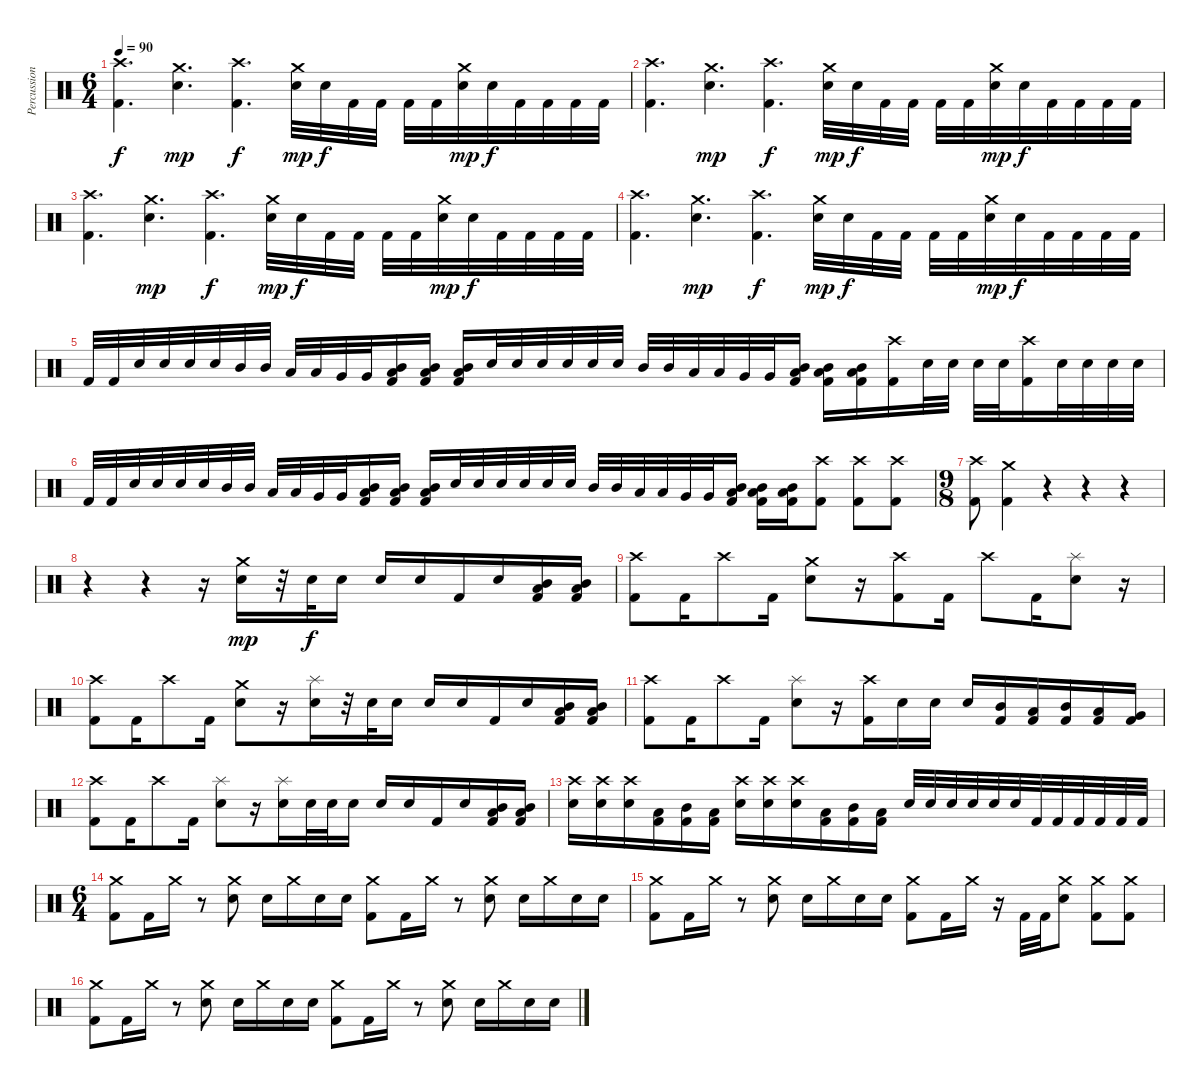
\track ("Percussion" "Percussion") {instrument percussion}
\staff {score}
\articulation defaults
\ts (6 4)
\tempo 90
\clef neutral
\ks c
("Crash high (hit)" "Kick (hit) 2").4{d dy f} ("Crash medium (hit)" "Snare (hit) 2").4{d dy mp} ("Crash high (hit)" "Kick (hit) 2").4{d dy f} ("Crash medium (hit)" "Snare (hit) 2").32{dy mp} "Snare (hit) 2".32{dy f} "Kick (hit) 2".32 "Kick (hit) 2".32 "Kick (hit) 2".32 "Kick (hit) 2".32 ("Crash medium (hit)" "Snare (hit) 2").32{dy mp} "Snare (hit) 2".32{dy f} "Kick (hit) 2".32 "Kick (hit) 2".32 "Kick (hit) 2".32 "Kick (hit) 2".32 |
("Crash high (hit)" "Kick (hit) 2").4{d} ("Crash medium (hit)" "Snare (hit) 2").4{d dy mp} ("Crash high (hit)" "Kick (hit) 2").4{d dy f} ("Crash medium (hit)" "Snare (hit) 2").32{dy mp} "Snare (hit) 2".32{dy f} "Kick (hit) 2".32 "Kick (hit) 2".32 "Kick (hit) 2".32 "Kick (hit) 2".32 ("Crash medium (hit)" "Snare (hit) 2").32{dy mp} "Snare (hit) 2".32{dy f} "Kick (hit) 2".32 "Kick (hit) 2".32 "Kick (hit) 2".32 "Kick (hit) 2".32 |
("Crash high (hit)" "Kick (hit) 2").4{d} ("Crash medium (hit)" "Snare (hit) 2").4{d dy mp} ("Crash high (hit)" "Kick (hit) 2").4{d dy f} ("Crash medium (hit)" "Snare (hit) 2").32{dy mp} "Snare (hit) 2".32{dy f} "Kick (hit) 2".32 "Kick (hit) 2".32 "Kick (hit) 2".32 "Kick (hit) 2".32 ("Crash medium (hit)" "Snare (hit) 2").32{dy mp} "Snare (hit) 2".32{dy f} "Kick (hit) 2".32 "Kick (hit) 2".32 "Kick (hit) 2".32 "Kick (hit) 2".32 |
("Crash high (hit)" "Kick (hit) 2").4{d} ("Crash medium (hit)" "Snare (hit) 2").4{d dy mp} ("Crash high (hit)" "Kick (hit) 2").4{d dy f} ("Crash medium (hit)" "Snare (hit) 2").32{dy mp} "Snare (hit) 2".32{dy f} "Kick (hit) 2".32 "Kick (hit) 2".32 "Kick (hit) 2".32 "Kick (hit) 2".32 ("Crash medium (hit)" "Snare (hit) 2").32{dy mp} "Snare (hit) 2".32{dy f} "Kick (hit) 2".32 "Kick (hit) 2".32 "Kick (hit) 2".32 "Kick (hit) 2".32 |
"Kick (hit) 2".32 "Kick (hit) 2".32 "Snare (hit) 2".32 "Snare (hit) 2".32 "Snare (hit) 2".32 "Snare (hit) 2".32 "Mid Tom (hit)".32 "Mid Tom (hit)".32 "Low Tom (hit)".32 "Low Tom (hit)".32 "Very Low Tom (hit)".32 "Very Low Tom (hit)".32 ("Mid Tom (hit)" "Low Tom (hit)" "Kick (hit) 2").16 ("Mid Tom (hit)" "Low Tom (hit)" "Kick (hit) 2").16 ("Mid Tom (hit)" "Low Tom (hit)" "Kick (hit) 2").16 "Snare (hit) 2".32 "Snare (hit) 2".32 "Snare (hit) 2".32 "Snare (hit) 2".32 "Snare (hit) 2".32 "Snare (hit) 2".32 "Mid Tom (hit)".32 "Mid Tom (hit)".32 "Low Tom (hit)".32 "Low Tom (hit)".32 "Very Low Tom (hit)".32 "Very Low Tom (hit)".32 ("Mid Tom (hit)" "Low Tom (hit)" "Kick (hit) 2").16 ("Mid Tom (hit)" "Low Tom (hit)" "Kick (hit) 2").16 ("Mid Tom (hit)" "Low Tom (hit)" "Kick (hit) 2").16 ("Crash high (hit)" "Kick (hit) 2").16 "Snare (hit) 2".32 "Snare (hit) 2".32 "Snare (hit) 2".32 "Snare (hit) 2".32 ("Crash high (hit)" "Kick (hit) 2").16 "Snare (hit) 2".32 "Snare (hit) 2".32 "Snare (hit) 2".32 "Snare (hit) 2".32 |
"Kick (hit) 2".32 "Kick (hit) 2".32 "Snare (hit) 2".32 "Snare (hit) 2".32 "Snare (hit) 2".32 "Snare (hit) 2".32 "Mid Tom (hit)".32 "Mid Tom (hit)".32 "Low Tom (hit)".32 "Low Tom (hit)".32 "Very Low Tom (hit)".32 "Very Low Tom (hit)".32 ("Mid Tom (hit)" "Low Tom (hit)" "Kick (hit) 2").16 ("Mid Tom (hit)" "Low Tom (hit)" "Kick (hit) 2").16 ("Mid Tom (hit)" "Low Tom (hit)" "Kick (hit) 2").16 "Snare (hit) 2".32 "Snare (hit) 2".32 "Snare (hit) 2".32 "Snare (hit) 2".32 "Snare (hit) 2".32 "Snare (hit) 2".32 "Mid Tom (hit)".32 "Mid Tom (hit)".32 "Low Tom (hit)".32 "Low Tom (hit)".32 "Very Low Tom (hit)".32 "Very Low Tom (hit)".32 ("Mid Tom (hit)" "Low Tom (hit)" "Kick (hit) 2").16 ("Mid Tom (hit)" "Low Tom (hit)" "Kick (hit) 2").16 ("Mid Tom (hit)" "Low Tom (hit)" "Kick (hit) 2").16 ("Crash high (hit)" "Kick (hit) 2").8 ("Crash high (hit)" "Kick (hit) 2").8 ("Crash high (hit)" "Kick (hit) 2").8 |
\ts (9 8)
("Crash high (hit)" "Kick (hit) 2").8 ("Crash medium (hit)" "Kick (hit) 2").4 r.4 r.4 r.4 |
r.4 r.4 r.16 ("Crash medium (hit)" "Snare (hit) 2").16{dy mp} r.32 "Snare (hit) 2".32{dy f} "Snare (hit) 2".16 "Snare (hit) 2".16 "Snare (hit) 2".16 "Kick (hit) 2".16 "Snare (hit) 2".16 ("Mid Tom (hit)" "Low Tom (hit)" "Kick (hit) 2").16 ("Mid Tom (hit)" "Low Tom (hit)" "Kick (hit) 2").16 |
("Crash high (hit)" "Kick (hit) 2").8 "Kick (hit) 2".16 "Crash high (hit)".8 "Kick (hit) 2".16 ("Crash medium (hit)" "Snare (hit) 2").8 r.16 ("Crash high (hit)" "Kick (hit) 2").8 "Kick (hit) 2".16 "Crash high (hit)".8 "Kick (hit) 2".16 ("Splash (hit)" "Snare (hit) 2").8 r.16 |
("Crash high (hit)" "Kick (hit) 2").8 "Kick (hit) 2".16 "Crash high (hit)".8 "Kick (hit) 2".16 ("Crash medium (hit)" "Snare (hit) 2").8 r.16 ("Splash (hit)" "Snare (hit) 2").16 r.32 "Snare (hit) 2".32 "Snare (hit) 2".16 "Snare (hit) 2".16 "Snare (hit) 2".16 "Kick (hit) 2".16 "Snare (hit) 2".16 ("Mid Tom (hit)" "Low Tom (hit)" "Kick (hit) 2").16 ("Mid Tom (hit)" "Low Tom (hit)" "Kick (hit) 2").16 |
("Crash high (hit)" "Kick (hit) 2").8 "Kick (hit) 2".16 "Crash high (hit)".8 "Kick (hit) 2".16 ("Splash (hit)" "Snare (hit) 2").8 r.16 ("Crash high (hit)" "Kick (hit) 2").16 "Snare (hit) 2".16 "Snare (hit) 2".16 "Snare (hit) 2".16 ("Mid Tom (hit)" "Kick (hit) 2").16 ("Low Tom (hit)" "Kick (hit) 2").16 ("Mid Tom (hit)" "Kick (hit) 2").16 ("Low Tom (hit)" "Kick (hit) 2").16 ("Very Low Tom (hit)" "Kick (hit) 2").16 |
("Crash high (hit)" "Kick (hit) 2").8 "Kick (hit) 2".16 "Crash high (hit)".8 "Kick (hit) 2".16 ("Splash (hit)" "Snare (hit) 2").8 r.16 ("Splash (hit)" "Snare (hit) 2").16 "Snare (hit) 2".32 "Snare (hit) 2".32 "Snare (hit) 2".16 "Snare (hit) 2".16 "Snare (hit) 2".16 "Kick (hit) 2".16 "Snare (hit) 2".16 ("Mid Tom (hit)" "Low Tom (hit)" "Kick (hit) 2").16 ("Mid Tom (hit)" "Low Tom (hit)" "Kick (hit) 2").16 |
("Crash high (hit)" "Snare (hit) 2").16 ("Crash high (hit)" "Snare (hit) 2").16 ("Crash high (hit)" "Snare (hit) 2").16 ("Low Tom (hit)" "Kick (hit) 2").16 ("Mid Tom (hit)" "Kick (hit) 2").16 ("Low Tom (hit)" "Kick (hit) 2").16 ("Crash high (hit)" "Snare (hit) 2").16 ("Crash high (hit)" "Snare (hit) 2").16 ("Crash high (hit)" "Snare (hit) 2").16 ("Low Tom (hit)" "Kick (hit) 2").16 ("Mid Tom (hit)" "Kick (hit) 2").16 ("Low Tom (hit)" "Kick (hit) 2").16 "Snare (hit) 2".32 "Snare (hit) 2".32 "Snare (hit) 2".32 "Snare (hit) 2".32 "Snare (hit) 2".32 "Snare (hit) 2".32 "Kick (hit) 2".32 "Kick (hit) 2".32 "Kick (hit) 2".32 "Kick (hit) 2".32 "Kick (hit) 2".32 "Kick (hit) 2".32 |
\ts (6 4)
("Crash medium (hit)" "Kick (hit) 2").8 "Kick (hit) 2".16 "Crash medium (hit)".16 r.8 ("Crash medium (hit)" "Snare (hit) 2").8 "Snare (hit) 2".16 "Crash medium (hit)".16 "Snare (hit) 2".16 "Snare (hit) 2".16 ("Crash medium (hit)" "Kick (hit) 2").8 "Kick (hit) 2".16 "Crash medium (hit)".16 r.8 ("Crash medium (hit)" "Snare (hit) 2").8 "Snare (hit) 2".16 "Crash medium (hit)".16 "Snare (hit) 2".16 "Snare (hit) 2".16 |
("Crash medium (hit)" "Kick (hit) 2").8 "Kick (hit) 2".16 "Crash medium (hit)".16 r.8 ("Crash medium (hit)" "Snare (hit) 2").8 "Snare (hit) 2".16 "Crash medium (hit)".16 "Snare (hit) 2".16 "Snare (hit) 2".16 ("Crash medium (hit)" "Kick (hit) 2").8 "Kick (hit) 2".16 "Crash medium (hit)".16 r.16 "Kick (hit) 2".32 "Kick (hit) 2".32 ("Crash medium (hit)" "Snare (hit) 2").8 ("Crash medium (hit)" "Kick (hit) 2").8 ("Crash medium (hit)" "Kick (hit) 2").8 |
("Crash medium (hit)" "Kick (hit) 2").8 "Kick (hit) 2".16 "Crash medium (hit)".16 r.8 ("Crash medium (hit)" "Snare (hit) 2").8 "Snare (hit) 2".16 "Crash medium (hit)".16 "Snare (hit) 2".16 "Snare (hit) 2".16 ("Crash medium (hit)" "Kick (hit) 2").8 "Kick (hit) 2".16 "Crash medium (hit)".16 r.8 ("Crash medium (hit)" "Snare (hit) 2").8 "Snare (hit) 2".16 "Crash medium (hit)".16 "Snare (hit) 2".16 "Snare (hit) 2".16
